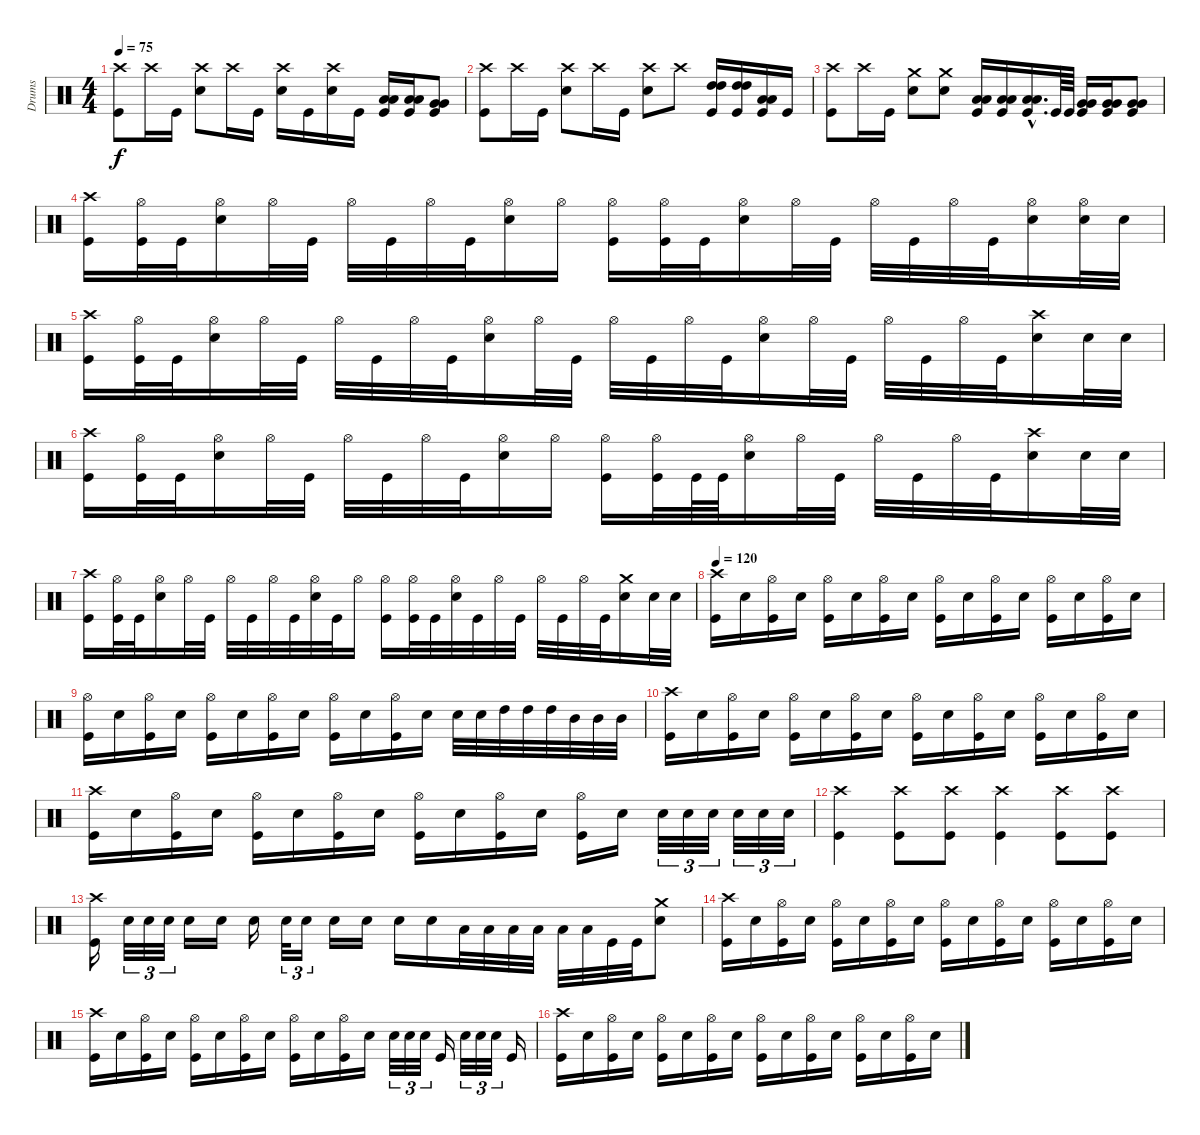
\track ("Drums" "Drums") {instrument percussion}
\staff {score}
\articulation defaults
\ts (4 4)
\tempo 75
\clef neutral
\ks c
("Crash high (hit)" "Kick (hit)").8{dy f} "Crash high (hit)".16 "Kick (hit)".16 ("Crash high (hit)" "Electric Snare (hit)").8 "Crash high (hit)".16 "Kick (hit)".16 ("Crash high (hit)" "Electric Snare (hit)").16 "Kick (hit)".16 ("Crash high (hit)" "Electric Snare (hit)").16 "Kick (hit)".16 ("Low Tom (hit)" "Low Tom (hit)" "Kick (hit)").16 ("Low Tom (hit)" "Low Tom (hit)" "Kick (hit)").16 ("Very Low Tom (hit)" "Very Low Tom (hit)" "Kick (hit)").8 |
("Crash high (hit)" "Kick (hit)").8 "Crash high (hit)".16 "Kick (hit)".16 ("Crash high (hit)" "Electric Snare (hit)").8 "Crash high (hit)".16 "Kick (hit)".16 ("Crash high (hit)" "Electric Snare (hit)").8 "Crash high (hit)".8 ("High Tom (hit)" "High Tom (hit)" "Kick (hit)").16 ("High Tom (hit)" "High Tom (hit)" "Kick (hit)").16 ("Low Tom (hit)" "Low Tom (hit)" "Kick (hit)").16 "Kick (hit)".16 |
("Crash high (hit)" "Kick (hit)").8 "Crash high (hit)".16 "Kick (hit)".16 ("Crash medium (hit)" "Electric Snare (hit)").8 ("Crash medium (hit)" "Electric Snare (hit)").8 ("Low Tom (hit)" "Low Tom (hit)" "Kick (hit)").16 ("Low Tom (hit)" "Low Tom (hit)" "Kick (hit)").16 ("Low Tom (hit)"{hac} "Low Tom (hit)"{hac} "Kick (hit)"{hac}).16{d} "Kick (hit)".64 "Kick (hit)".64 ("Very Low Tom (hit)" "Very Low Tom (hit)" "Kick (hit)").16 ("Very Low Tom (hit)" "Very Low Tom (hit)" "Kick (hit)").16 ("Very Low Tom (hit)" "Very Low Tom (hit)" "Kick (hit)").8 |
("Crash high (hit)" "Kick (hit)").16 ("Hi-Hat (open)" "Kick (hit)").32 "Kick (hit)".32 ("Hi-Hat (open)" "Electric Snare (hit)").16 "Hi-Hat (open)".32 "Kick (hit)".32 "Hi-Hat (open)".32 "Kick (hit)".32 "Hi-Hat (open)".32 "Kick (hit)".32 ("Hi-Hat (open)" "Electric Snare (hit)").16 "Hi-Hat (open)".16 ("Hi-Hat (open)" "Kick (hit)").16 ("Hi-Hat (open)" "Kick (hit)").32 "Kick (hit)".32 ("Hi-Hat (open)" "Electric Snare (hit)").16 "Hi-Hat (open)".32 "Kick (hit)".32 "Hi-Hat (open)".32 "Kick (hit)".32 "Hi-Hat (open)".32 "Kick (hit)".32 ("Hi-Hat (open)" "Electric Snare (hit)").16 ("Hi-Hat (open)" "Electric Snare (hit)").32 "Electric Snare (hit)".32 |
("Crash high (hit)" "Kick (hit)").16 ("Hi-Hat (open)" "Kick (hit)").32 "Kick (hit)".32 ("Hi-Hat (open)" "Electric Snare (hit)").16 "Hi-Hat (open)".32 "Kick (hit)".32 "Hi-Hat (open)".32 "Kick (hit)".32 "Hi-Hat (open)".32 "Kick (hit)".32 ("Hi-Hat (open)" "Electric Snare (hit)").16 "Hi-Hat (open)".32 "Kick (hit)".32 "Hi-Hat (open)".32 "Kick (hit)".32 "Hi-Hat (open)".32 "Kick (hit)".32 ("Hi-Hat (open)" "Electric Snare (hit)").16 "Hi-Hat (open)".32 "Kick (hit)".32 "Hi-Hat (open)".32 "Kick (hit)".32 "Hi-Hat (open)".32 "Kick (hit)".32 ("Crash high (hit)" "Electric Snare (hit)").16 "Electric Snare (hit)".32 "Electric Snare (hit)".32 |
("Crash high (hit)" "Kick (hit)").16 ("Hi-Hat (open)" "Kick (hit)").32 "Kick (hit)".32 ("Hi-Hat (open)" "Electric Snare (hit)").16 "Hi-Hat (open)".32 "Kick (hit)".32 "Hi-Hat (open)".32 "Kick (hit)".32 "Hi-Hat (open)".32 "Kick (hit)".32 ("Hi-Hat (open)" "Electric Snare (hit)").16 "Hi-Hat (open)".16 ("Hi-Hat (open)" "Kick (hit)").16 ("Hi-Hat (open)" "Kick (hit)").32 "Kick (hit)".64 "Kick (hit)".64 ("Hi-Hat (open)" "Electric Snare (hit)").16 "Hi-Hat (open)".32 "Kick (hit)".32 "Hi-Hat (open)".32 "Kick (hit)".32 "Hi-Hat (open)".32 "Kick (hit)".32 ("Crash high (hit)" "Electric Snare (hit)").16 "Electric Snare (hit)".32 "Electric Snare (hit)".32 |
("Crash high (hit)" "Kick (hit)").16 ("Hi-Hat (open)" "Kick (hit)").32 "Kick (hit)".32 ("Hi-Hat (open)" "Electric Snare (hit)").16 "Hi-Hat (open)".32 "Kick (hit)".32 "Hi-Hat (open)".32 "Kick (hit)".32 "Hi-Hat (open)".32 "Kick (hit)".32 ("Hi-Hat (open)" "Electric Snare (hit)").32 "Kick (hit)".32 "Hi-Hat (open)".16 ("Hi-Hat (open)" "Kick (hit)").16 ("Hi-Hat (open)" "Kick (hit)").32 "Kick (hit)".32 ("Hi-Hat (open)" "Electric Snare (hit)").32 "Kick (hit)".32 "Hi-Hat (open)".32 "Kick (hit)".32 "Hi-Hat (open)".32 "Kick (hit)".32 "Hi-Hat (open)".32 "Kick (hit)".32 ("Crash medium (hit)" "Electric Snare (hit)").16 "Electric Snare (hit)".32 "Electric Snare (hit)".32 |
\tempo 120
("Crash high (hit)" "Kick (hit)").16 "Electric Snare (hit)".16 ("Hi-Hat (open)" "Kick (hit)").16 "Electric Snare (hit)".16 ("Hi-Hat (open)" "Kick (hit)").16 "Electric Snare (hit)".16 ("Hi-Hat (open)" "Kick (hit)").16 "Electric Snare (hit)".16 ("Hi-Hat (open)" "Kick (hit)").16 "Electric Snare (hit)".16 ("Hi-Hat (open)" "Kick (hit)").16 "Electric Snare (hit)".16 ("Hi-Hat (open)" "Kick (hit)").16 "Electric Snare (hit)".16 ("Hi-Hat (open)" "Kick (hit)").16 "Electric Snare (hit)".16 |
("Hi-Hat (open)" "Kick (hit)").16 "Electric Snare (hit)".16 ("Hi-Hat (open)" "Kick (hit)").16 "Electric Snare (hit)".16 ("Hi-Hat (open)" "Kick (hit)").16 "Electric Snare (hit)".16 ("Hi-Hat (open)" "Kick (hit)").16 "Electric Snare (hit)".16 ("Hi-Hat (open)" "Kick (hit)").16 "Electric Snare (hit)".16 ("Hi-Hat (open)" "Kick (hit)").16 "Electric Snare (hit)".16 "Electric Snare (hit)".32 "Electric Snare (hit)".32 "High Tom (hit)".32 "High Tom (hit)".32 "High Tom (hit)".32 "Mid Tom (hit)".32 "Mid Tom (hit)".32 "Mid Tom (hit)".32 |
("Crash high (hit)" "Kick (hit)").16 "Electric Snare (hit)".16 ("Hi-Hat (open)" "Kick (hit)").16 "Electric Snare (hit)".16 ("Hi-Hat (open)" "Kick (hit)").16 "Electric Snare (hit)".16 ("Hi-Hat (open)" "Kick (hit)").16 "Electric Snare (hit)".16 ("Hi-Hat (open)" "Kick (hit)").16 "Electric Snare (hit)".16 ("Hi-Hat (open)" "Kick (hit)").16 "Electric Snare (hit)".16 ("Hi-Hat (open)" "Kick (hit)").16 "Electric Snare (hit)".16 ("Hi-Hat (open)" "Kick (hit)").16 "Electric Snare (hit)".16 |
("Crash high (hit)" "Kick (hit)").16 "Electric Snare (hit)".16 ("Hi-Hat (open)" "Kick (hit)").16 "Electric Snare (hit)".16 ("Hi-Hat (open)" "Kick (hit)").16 "Electric Snare (hit)".16 ("Hi-Hat (open)" "Kick (hit)").16 "Electric Snare (hit)".16 ("Hi-Hat (open)" "Kick (hit)").16 "Electric Snare (hit)".16 ("Hi-Hat (open)" "Kick (hit)").16 "Electric Snare (hit)".16 ("Hi-Hat (open)" "Kick (hit)").16 "Electric Snare (hit)".16 "Electric Snare (hit)".32{tu (3 2)} "Electric Snare (hit)".32{tu (3 2)} "Electric Snare (hit)".32{tu (3 2)} "Electric Snare (hit)".32{tu (3 2)} "Electric Snare (hit)".32{tu (3 2)} "Electric Snare (hit)".32{tu (3 2)} |
("Crash high (hit)" "Kick (hit)").4 ("Crash high (hit)" "Kick (hit)").8 ("Crash high (hit)" "Kick (hit)").8 ("Crash high (hit)" "Kick (hit)").4 ("Crash high (hit)" "Kick (hit)").8 ("Crash high (hit)" "Kick (hit)").8 |
("Crash high (hit)" "Kick (hit)").16 "Electric Snare (hit)".32{tu (3 2)} "Electric Snare (hit)".32{tu (3 2)} "Electric Snare (hit)".32{tu (3 2)} "Electric Snare (hit)".16 "Electric Snare (hit)".16 "Electric Snare (hit)".16 "Electric Snare (hit)".32{tu (3 2)} "Electric Snare (hit)".16{tu (3 2)} "Electric Snare (hit)".16 "Electric Snare (hit)".16 "Electric Snare (hit)".16 "Electric Snare (hit)".16 "Low Tom (hit)".32 "Low Tom (hit)".32 "Low Tom (hit)".32 "Low Tom (hit)".32 "Low Tom (hit)".32 "Low Tom (hit)".32 "Kick (hit)".32 "Kick (hit)".32 ("Crash medium (hit)" "Electric Snare (hit)").8 |
("Crash high (hit)" "Kick (hit)").16 "Electric Snare (hit)".16 ("Hi-Hat (open)" "Kick (hit)").16 "Electric Snare (hit)".16 ("Hi-Hat (open)" "Kick (hit)").16 "Electric Snare (hit)".16 ("Hi-Hat (open)" "Kick (hit)").16 "Electric Snare (hit)".16 ("Hi-Hat (open)" "Kick (hit)").16 "Electric Snare (hit)".16 ("Hi-Hat (open)" "Kick (hit)").16 "Electric Snare (hit)".16 ("Hi-Hat (open)" "Kick (hit)").16 "Electric Snare (hit)".16 ("Hi-Hat (open)" "Kick (hit)").16 "Electric Snare (hit)".16 |
("Crash high (hit)" "Kick (hit)").16 "Electric Snare (hit)".16 ("Hi-Hat (open)" "Kick (hit)").16 "Electric Snare (hit)".16 ("Hi-Hat (open)" "Kick (hit)").16 "Electric Snare (hit)".16 ("Hi-Hat (open)" "Kick (hit)").16 "Electric Snare (hit)".16 ("Hi-Hat (open)" "Kick (hit)").16 "Electric Snare (hit)".16 ("Hi-Hat (open)" "Kick (hit)").16 "Electric Snare (hit)".16 "Electric Snare (hit)".32{tu (3 2)} "Electric Snare (hit)".32{tu (3 2)} "Electric Snare (hit)".32{tu (3 2)} "Kick (hit)".16 "Electric Snare (hit)".32{tu (3 2)} "Electric Snare (hit)".32{tu (3 2)} "Electric Snare (hit)".32{tu (3 2)} "Kick (hit)".16 |
("Crash high (hit)" "Kick (hit)").16 "Electric Snare (hit)".16 ("Hi-Hat (open)" "Kick (hit)").16 "Electric Snare (hit)".16 ("Hi-Hat (open)" "Kick (hit)").16 "Electric Snare (hit)".16 ("Hi-Hat (open)" "Kick (hit)").16 "Electric Snare (hit)".16 ("Hi-Hat (open)" "Kick (hit)").16 "Electric Snare (hit)".16 ("Hi-Hat (open)" "Kick (hit)").16 "Electric Snare (hit)".16 ("Hi-Hat (open)" "Kick (hit)").16 "Electric Snare (hit)".16 ("Hi-Hat (open)" "Kick (hit)").16 "Electric Snare (hit)".16
